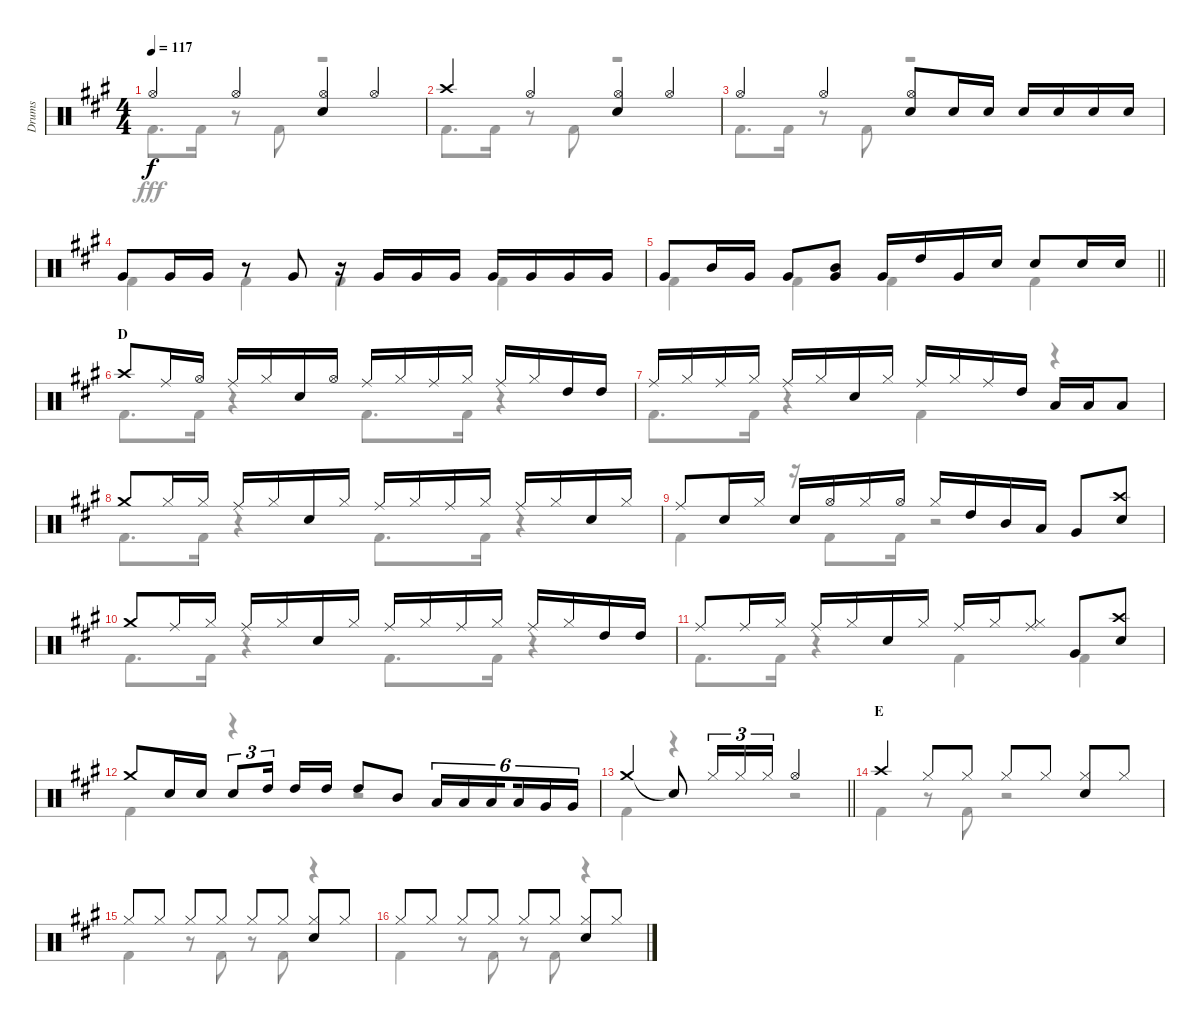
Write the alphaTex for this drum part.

\track ("Drums" "Drums") {instrument percussion}
\staff {score}
\articulation defaults
\voice
\ts (4 4)
\tempo 117
\clef neutral
\ks a "Hi-Hat (open)".4{dy f} "Hi-Hat (open)".4
("Hi-Hat (open)" "Snare (hit) 2").4 "Hi-Hat (open)".4 |
"Crash high (hit)".4 "Hi-Hat (open)".4 ("Hi-Hat (open)" "Snare (hit) 2").4 "Hi-Hat (open)".4 |
"Hi-Hat (open)".4 "Hi-Hat (open)".4 ("Hi-Hat (open)" "Snare (hit) 2").8 "Snare (hit) 2".16 "Snare (hit) 2".16 "Snare (hit) 2".16 "Snare (hit) 2".16 "Snare (hit) 2".16 "Snare (hit) 2".16 |
"Very Low Tom (hit)".8 "Very Low Tom (hit)".16 "Very Low Tom (hit)".16 r.8 "Very Low Tom (hit)".8 r.16 "Very Low Tom (hit)".16 "Very Low Tom (hit)".16 "Very Low Tom (hit)".16 "Very Low Tom (hit)".16 "Very Low Tom (hit)".16 "Very Low Tom (hit)".16 "Very Low Tom (hit)".16 |
\barLineRight lightlight "Very Low Tom (hit)".8 "Mid Tom (hit)".16 "Very Low Tom (hit)".16 "Very Low Tom (hit)".8
("Mid Tom (hit)" "Very Low Tom (hit)").8 "Very Low Tom (hit)".16 "High Tom (hit)".16 "Very Low Tom (hit)".16 "Snare (hit) 2".16 "Snare (hit) 2".8 "Snare (hit) 2".16 "Snare (hit) 2".16 |
\section ("" "D")
"Crash high (hit)".8 "Ride (middle)".16 "Hi-Hat (open)".16 "Ride (middle)".16 "Hi-Hat (closed)".16 "Snare (hit) 2".16 "Hi-Hat (open)".16 "Ride (middle)".16 "Hi-Hat (closed)".16 "Ride (middle)".16 "Hi-Hat (closed)".16 "Ride (middle)".16 "Hi-Hat (closed)".16 "High Tom (hit)".16 "High Tom (hit)".16 |
"Ride (middle)".16 "Hi-Hat (closed)".16 "Ride (middle)".16 "Hi-Hat (closed)".16 "Ride (middle)".16 "Hi-Hat (closed)".16 "Snare (hit) 2".16 "Hi-Hat (closed)".16 "Ride (middle)".16 "Hi-Hat (closed)".16 "Ride (middle)".16 "High Tom (hit)".16 "Low Tom (hit)".16 "Low Tom (hit)".16 "Low Tom (hit)".8 |
"Crash medium (hit)".8 "Hi-Hat (closed)".16 "Hi-Hat (closed)".16 "Ride (middle)".16 "Hi-Hat (closed)".16 "Snare (hit) 2".16 "Hi-Hat (closed)".16 "Ride (middle)".16 "Hi-Hat (closed)".16 "Ride (middle)".16 "Hi-Hat (closed)".16 "Ride (middle)".16 "Hi-Hat (closed)".16 "Snare (hit) 2".16 "Hi-Hat (closed)".16 |
"Ride (middle)".8 "Snare (hit) 2".16 "Hi-Hat (closed)".16 "Snare (hit) 2".16 "Hi-Hat (open)".16 "Hi-Hat (closed)".16 "Hi-Hat (open)".16 "Hi-Hat (closed)".16 "High Tom (hit)".16 "Mid Tom (hit)".16 "Low Tom (hit)".16 "Very Low Tom (hit)".8 ("Crash high (hit)" "Snare (hit) 2").8 |
"Crash medium (hit)".8 "Ride (middle)".16 "Hi-Hat (closed)".16 "Ride (middle)".16 "Hi-Hat (closed)".16 "Snare (hit) 2".16 "Hi-Hat (closed)".16 "Ride (middle)".16 "Hi-Hat (closed)".16 "Ride (middle)".16 "Hi-Hat (closed)".16 "Ride (middle)".16 "Hi-Hat (closed)".16 "High Tom (hit)".16 "High Tom (hit)".16 |
"Ride (middle)".8 "Ride (middle)".16 "Hi-Hat (closed)".16 "Ride (middle)".16 "Hi-Hat (closed)".16 "Snare (hit) 2".16 "Hi-Hat (closed)".16 "Ride (middle)".16 "Hi-Hat (closed)".16 ("Ride (middle)" "Hi-Hat (closed)").8 "Very Low Tom (hit)".8 ("Crash high (hit)" "Snare (hit) 2").8 |
"Crash medium (hit)".8 "Snare (hit) 2".16 "Snare (hit) 2".16 "Snare (hit) 2".8{tu (3 2)} "High Tom (hit)".16{tu (3 2) beam splitsecondary} "High Tom (hit)".16 "High Tom (hit)".16 "High Tom (hit)".8 "Mid Tom (hit)".8 "Low Tom (hit)".16{tu (6 4)} "Low Tom (hit)".16{tu (6 4)} "Low Tom (hit)".16{tu (6 4) beam splitsecondary} "Low Tom (hit)".16{tu (6 4)} "Very Low Tom (hit)".16{tu (6 4)} "Very Low Tom (hit)".16{tu (6 4)} |
\barLineRight lightlight "Crash medium (hit)".4 "Snare (hit)"{t}.8 "Hi-Hat (closed)".16{tu (3 2)} "Hi-Hat (closed)".16{tu (3 2)} "Hi-Hat (closed)".16{tu (3 2)} "Hi-Hat (open)".2
|
\section ("" "E")
"Crash high (hit)".4 "Hi-Hat (closed)".8 "Hi-Hat (closed)".8 "Hi-Hat (closed)".8 "Hi-Hat (closed)".8 ("Hi-Hat (closed)" "Snare (hit) 2").8 "Hi-Hat (closed)".8 |
"Hi-Hat (closed)".8 "Hi-Hat (closed)".8 "Hi-Hat (closed)".8 "Hi-Hat (closed)".8 "Hi-Hat (closed)".8 "Hi-Hat (closed)".8 ("Hi-Hat (closed)" "Snare (hit) 2").8 "Hi-Hat (closed)".8 |
"Hi-Hat (closed)".8 "Hi-Hat (closed)".8 "Hi-Hat (closed)".8 "Hi-Hat (closed)".8 "Hi-Hat (closed)".8 "Hi-Hat (closed)".8 ("Hi-Hat (closed)" "Snare (hit) 2").8 "Hi-Hat (closed)".8
\voice
\clef neutral
\ottava regular
\simile none
\ks a "Kick (hit) 2".8{d dy fff} "Kick (hit) 2".16
r.8 "Kick (hit) 2".8 r.2 |
"Kick (hit) 2".8{d} "Kick (hit) 2".16 r.8 "Kick (hit) 2".8 r.2 |
"Kick (hit) 2".8{d} "Kick (hit) 2".16 r.8 "Kick (hit) 2".8 r.2 |
"Kick (hit) 2".4 "Kick (hit) 2".4 "Kick (hit) 2".4 "Kick (hit) 2".4 |
\barLineRight lightlight "Kick (hit) 2".4 "Kick (hit) 2".4 "Kick (hit) 2".4 "Kick (hit) 2".4
|
"Kick (hit) 2".8{d} "Kick (hit) 2".16 r.4 "Kick (hit) 2".8{d} "Kick (hit) 2".16 r.4 |
"Kick (hit) 2".8{d} "Kick (hit) 2".16 r.4 "Kick (hit) 2".4 r.4 |
"Kick (hit) 2".8{d} "Kick (hit) 2".16 r.4 "Kick (hit) 2".8{d} "Kick (hit) 2".16 r.4 |
"Kick (hit) 2".4 r.16 "Kick (hit) 2".8 "Kick (hit) 2".16 r.2 |
"Kick (hit) 2".8{d} "Kick (hit) 2".16 r.4 "Kick (hit) 2".8{d} "Kick (hit) 2".16 r.4 |
"Kick (hit) 2".8{d} "Kick (hit) 2".16 r.4 "Kick (hit) 2".4 "Kick (hit) 2".4 |
"Kick (hit) 2".4 r.4 r.2 |
\barLineRight lightlight "Kick (hit) 2".4
r.4 r.2 |
"Kick (hit) 2".4 r.8 "Kick (hit) 2".8 r.2 |
"Kick (hit) 2".4 r.8 "Kick (hit) 2".8 r.8 "Kick (hit) 2".8 r.4 |
"Kick (hit) 2".4 r.8 "Kick (hit) 2".8 r.8 "Kick (hit) 2".8 r.4
